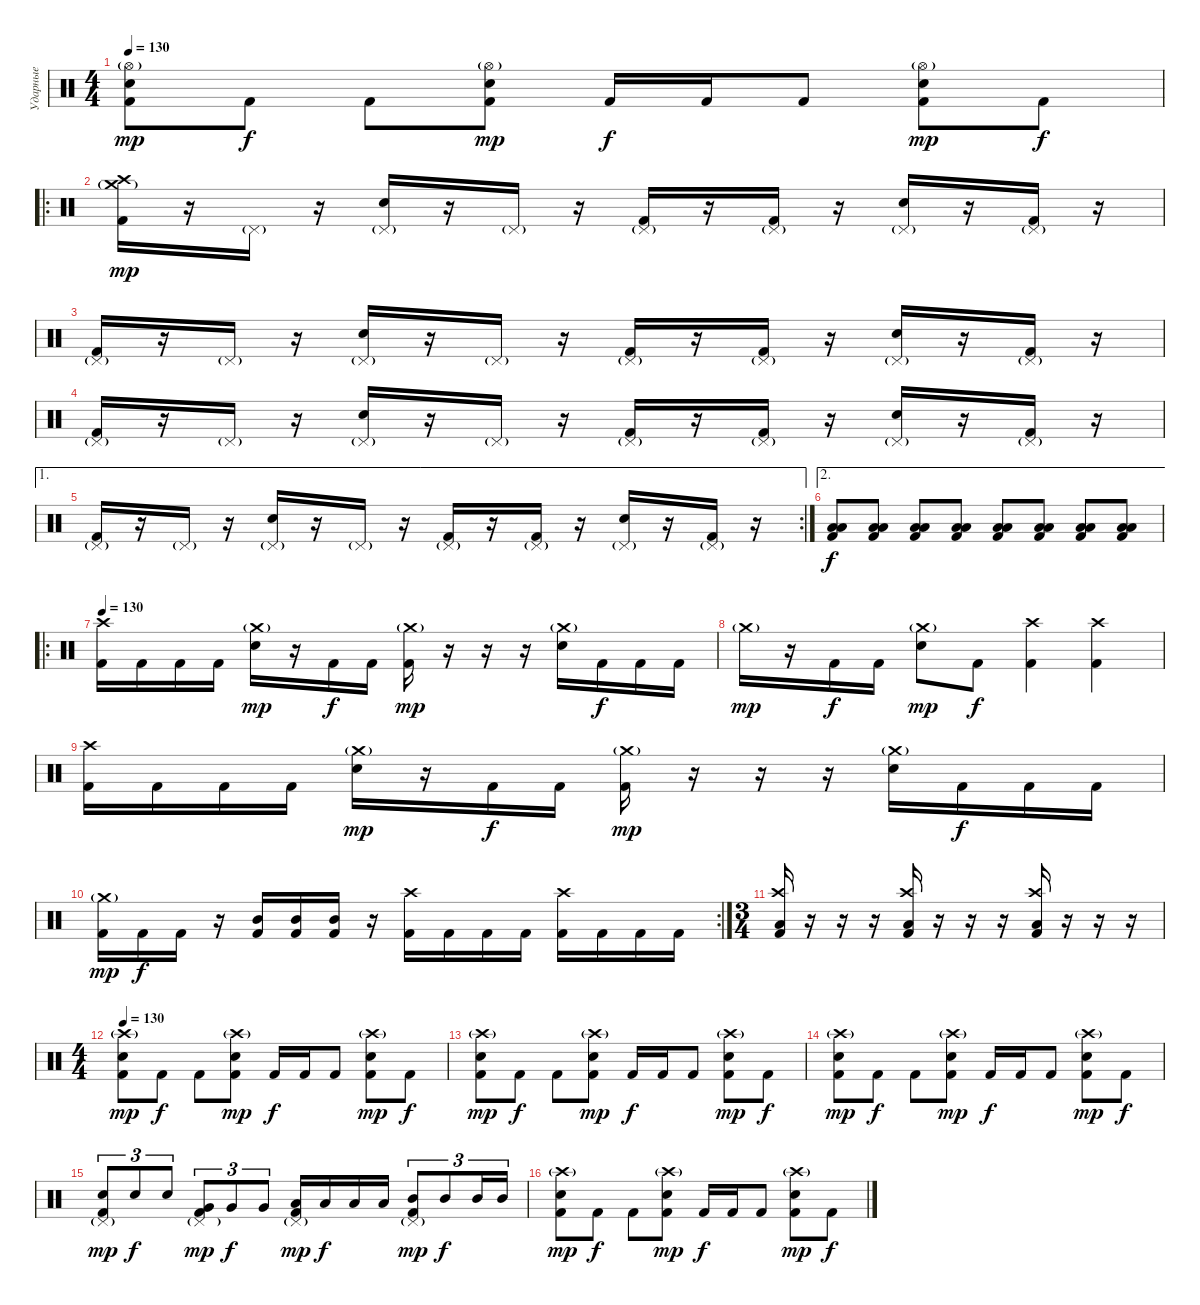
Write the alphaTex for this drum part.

\track ("Ударные" "Ударные") {instrument percussion}
\staff {score}
\articulation defaults
\ts (4 4)
\tempo 130
\clef neutral
\ks c
("Hi-Hat (open)"{g} "Electric Snare (hit)" "Kick (hit) 2").8{dy mp} "Kick (hit) 2".8{dy f} "Kick (hit) 2".8 ("Hi-Hat (open)"{g} "Electric Snare (hit)" "Kick (hit) 2").8{dy mp} "Kick (hit) 2".16{dy f} "Kick (hit) 2".16 "Kick (hit) 2".8 ("Hi-Hat (open)"{g} "Electric Snare (hit)" "Kick (hit) 2").8{dy mp} "Kick (hit) 2".8{dy f} |
\ro
("Crash high (hit)" "Crash medium (hit)"{g} "Kick (hit) 2").16{dy mp} r.16 "Pedal Hi-Hat (hit)"{g}.16 r.16 ("Pedal Hi-Hat (hit)"{g} "Electric Snare (hit)").16 r.16 "Pedal Hi-Hat (hit)"{g}.16 r.16 ("Pedal Hi-Hat (hit)"{g} "Kick (hit) 2").16 r.16 ("Pedal Hi-Hat (hit)"{g} "Kick (hit) 2").16 r.16 ("Pedal Hi-Hat (hit)"{g} "Electric Snare (hit)").16 r.16 ("Pedal Hi-Hat (hit)"{g} "Kick (hit) 2").16 r.16 |
("Pedal Hi-Hat (hit)"{g} "Kick (hit) 2").16 r.16 "Pedal Hi-Hat (hit)"{g}.16 r.16 ("Pedal Hi-Hat (hit)"{g} "Electric Snare (hit)").16 r.16 "Pedal Hi-Hat (hit)"{g}.16 r.16 ("Pedal Hi-Hat (hit)"{g} "Kick (hit) 2").16 r.16 ("Pedal Hi-Hat (hit)"{g} "Kick (hit) 2").16 r.16 ("Pedal Hi-Hat (hit)"{g} "Electric Snare (hit)").16 r.16 ("Pedal Hi-Hat (hit)"{g} "Kick (hit) 2").16 r.16 |
("Pedal Hi-Hat (hit)"{g} "Kick (hit) 2").16 r.16 "Pedal Hi-Hat (hit)"{g}.16 r.16 ("Pedal Hi-Hat (hit)"{g} "Electric Snare (hit)").16 r.16 "Pedal Hi-Hat (hit)"{g}.16 r.16 ("Pedal Hi-Hat (hit)"{g} "Kick (hit) 2").16 r.16 ("Pedal Hi-Hat (hit)"{g} "Kick (hit) 2").16 r.16 ("Pedal Hi-Hat (hit)"{g} "Electric Snare (hit)").16 r.16 ("Pedal Hi-Hat (hit)"{g} "Kick (hit) 2").16 r.16 |
\ae 1
\rc 2
("Pedal Hi-Hat (hit)"{g} "Kick (hit) 2").16 r.16 "Pedal Hi-Hat (hit)"{g}.16 r.16 ("Pedal Hi-Hat (hit)"{g} "Electric Snare (hit)").16 r.16 "Pedal Hi-Hat (hit)"{g}.16 r.16 ("Pedal Hi-Hat (hit)"{g} "Kick (hit) 2").16 r.16 ("Pedal Hi-Hat (hit)"{g} "Kick (hit) 2").16 r.16 ("Pedal Hi-Hat (hit)"{g} "Electric Snare (hit)").16 r.16 ("Pedal Hi-Hat (hit)"{g} "Kick (hit) 2").16 r.16 |
\ae 2
("Low Floor Tom (hit)" "Low Tom (hit)" "Kick (hit) 2").8{dy f} ("Low Floor Tom (hit)" "Low Tom (hit)" "Kick (hit) 2").8 ("Low Floor Tom (hit)" "Low Tom (hit)" "Kick (hit) 2").8 ("Low Floor Tom (hit)" "Low Tom (hit)" "Kick (hit) 2").8 ("Low Floor Tom (hit)" "Low Tom (hit)" "Kick (hit) 2").8 ("Low Floor Tom (hit)" "Low Tom (hit)" "Kick (hit) 2").8 ("Low Floor Tom (hit)" "Low Tom (hit)" "Kick (hit) 2").8 ("Low Floor Tom (hit)" "Low Tom (hit)" "Kick (hit) 2").8 |
\ro
\tempo 130
("Crash high (hit)" "Kick (hit) 2").16 "Kick (hit) 2".16 "Kick (hit) 2".16 "Kick (hit) 2".16 ("Crash medium (hit)"{g} "Electric Snare (hit)").16{dy mp} r.16 "Kick (hit) 2".16{dy f} "Kick (hit) 2".16 ("Crash medium (hit)"{g} "Kick (hit) 2").16{dy mp} r.16 r.16 r.16 ("Crash medium (hit)"{g} "Electric Snare (hit)").16 "Kick (hit) 2".16{dy f} "Kick (hit) 2".16 "Kick (hit) 2".16 |
"Crash medium (hit)"{g}.16{dy mp} r.16 "Kick (hit) 2".16{dy f} "Kick (hit) 2".16 ("Crash medium (hit)"{g} "Electric Snare (hit)").8{dy mp} "Kick (hit) 2".8{dy f} ("Crash high (hit)" "Kick (hit) 2").4 ("Crash high (hit)" "Kick (hit) 2").4 |
("Crash high (hit)" "Kick (hit) 2").16 "Kick (hit) 2".16 "Kick (hit) 2".16 "Kick (hit) 2".16 ("Crash medium (hit)"{g} "Electric Snare (hit)").16{dy mp} r.16 "Kick (hit) 2".16{dy f} "Kick (hit) 2".16 ("Crash medium (hit)"{g} "Kick (hit) 2").16{dy mp} r.16 r.16 r.16 ("Crash medium (hit)"{g} "Electric Snare (hit)").16 "Kick (hit) 2".16{dy f} "Kick (hit) 2".16 "Kick (hit) 2".16 |
\rc 2
("Crash medium (hit)"{g} "Kick (hit) 2").16{dy mp} "Kick (hit) 2".16{dy f} "Kick (hit) 2".16 r.16 ("Mid Tom (hit)" "Kick (hit) 2").16 ("Mid Tom (hit)" "Kick (hit) 2").16 ("Mid Tom (hit)" "Kick (hit) 2").16 r.16 ("Crash high (hit)" "Kick (hit) 2").16 "Kick (hit) 2".16 "Kick (hit) 2".16 "Kick (hit) 2".16 ("Crash high (hit)" "Kick (hit) 2").16 "Kick (hit) 2".16 "Kick (hit) 2".16 "Kick (hit) 2".16 |
\ts (3 4)
("Low Floor Tom (hit)" "Crash high (hit)" "Kick (hit) 2").16 r.16 r.16 r.16 ("Low Floor Tom (hit)" "Crash high (hit)" "Kick (hit) 2").16 r.16 r.16 r.16 ("Low Floor Tom (hit)" "Crash high (hit)" "Kick (hit) 2").16 r.16 r.16 r.16 |
\ts (4 4)
\tempo 130
("Crash high (hit)"{g} "Electric Snare (hit)" "Kick (hit) 2").8{dy mp} "Kick (hit) 2".8{dy f} "Kick (hit) 2".8 ("Crash high (hit)"{g} "Electric Snare (hit)" "Kick (hit) 2").8{dy mp} "Kick (hit) 2".16{dy f} "Kick (hit) 2".16 "Kick (hit) 2".8 ("Crash high (hit)"{g} "Electric Snare (hit)" "Kick (hit) 2").8{dy mp} "Kick (hit) 2".8{dy f} |
("Crash high (hit)"{g} "Electric Snare (hit)" "Kick (hit) 2").8{dy mp} "Kick (hit) 2".8{dy f} "Kick (hit) 2".8 ("Crash high (hit)"{g} "Electric Snare (hit)" "Kick (hit) 2").8{dy mp} "Kick (hit) 2".16{dy f} "Kick (hit) 2".16 "Kick (hit) 2".8 ("Crash high (hit)"{g} "Electric Snare (hit)" "Kick (hit) 2").8{dy mp} "Kick (hit) 2".8{dy f} |
("Crash high (hit)"{g} "Electric Snare (hit)" "Kick (hit) 2").8{dy mp} "Kick (hit) 2".8{dy f} "Kick (hit) 2".8 ("Crash high (hit)"{g} "Electric Snare (hit)" "Kick (hit) 2").8{dy mp} "Kick (hit) 2".16{dy f} "Kick (hit) 2".16 "Kick (hit) 2".8 ("Crash high (hit)"{g} "Electric Snare (hit)" "Kick (hit) 2").8{dy mp} "Kick (hit) 2".8{dy f} |
("Pedal Hi-Hat (hit)"{g} "Electric Snare (hit)" "Kick (hit) 2").8{tu (3 2) dy mp} "Electric Snare (hit)".8{tu (3 2) dy f} "Electric Snare (hit)".8{tu (3 2)} ("Pedal Hi-Hat (hit)"{g} "Very Low Tom (hit)" "Kick (hit) 2").8{tu (3 2) dy mp} "Very Low Tom (hit)".8{tu (3 2) dy f} "Very Low Tom (hit)".8{tu (3 2)} ("Pedal Hi-Hat (hit)"{g} "Low Tom (hit)" "Kick (hit) 2").16{dy mp} "Low Tom (hit)".16{dy f} "Low Tom (hit)".16 "Low Tom (hit)".16 ("Pedal Hi-Hat (hit)"{g} "Mid Tom (hit)" "Kick (hit) 2").8{tu (3 2) dy mp} "Mid Tom (hit)".8{tu (3 2) dy f} "Mid Tom (hit)".16{tu (3 2)} "Mid Tom (hit)".16{tu (3 2)} |
("Crash high (hit)"{g} "Electric Snare (hit)" "Kick (hit) 2").8{dy mp} "Kick (hit) 2".8{dy f} "Kick (hit) 2".8 ("Crash high (hit)"{g} "Electric Snare (hit)" "Kick (hit) 2").8{dy mp} "Kick (hit) 2".16{dy f} "Kick (hit) 2".16 "Kick (hit) 2".8 ("Crash high (hit)"{g} "Electric Snare (hit)" "Kick (hit) 2").8{dy mp} "Kick (hit) 2".8{dy f}
